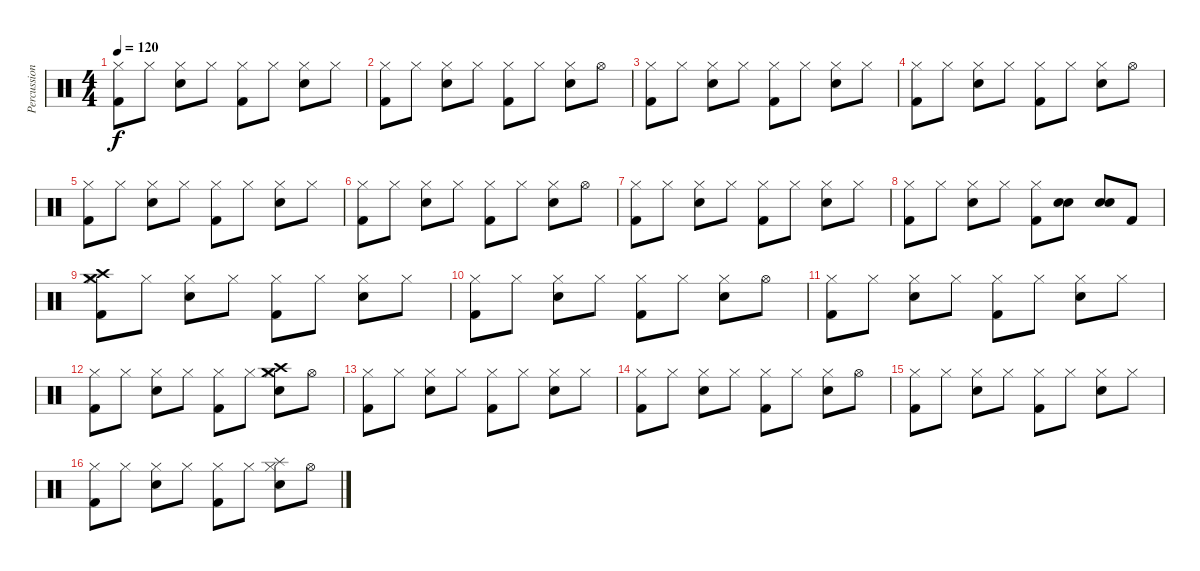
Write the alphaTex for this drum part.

\track ("Percussion" "Percussion") {instrument percussion}
\staff {score}
\articulation defaults
\ts (4 4)
\tempo 120
\clef neutral
\ks c
("Kick (hit) 2" "Hi-Hat (closed)").8{dy f} "Hi-Hat (closed)".8 ("Electric Snare (hit)" "Hi-Hat (closed)").8 "Hi-Hat (closed)".8 ("Kick (hit) 2" "Hi-Hat (closed)").8 "Hi-Hat (closed)".8 ("Electric Snare (hit)" "Hi-Hat (closed)").8 "Hi-Hat (closed)".8 |
("Kick (hit) 2" "Hi-Hat (closed)").8 "Hi-Hat (closed)".8 ("Electric Snare (hit)" "Hi-Hat (closed)").8 "Hi-Hat (closed)".8 ("Kick (hit) 2" "Hi-Hat (closed)").8 "Hi-Hat (closed)".8 ("Electric Snare (hit)" "Hi-Hat (closed)").8 "Hi-Hat (open)".8 |
("Kick (hit) 2" "Hi-Hat (closed)").8 "Hi-Hat (closed)".8 ("Electric Snare (hit)" "Hi-Hat (closed)").8 "Hi-Hat (closed)".8 ("Kick (hit) 2" "Hi-Hat (closed)").8 "Hi-Hat (closed)".8 ("Electric Snare (hit)" "Hi-Hat (closed)").8 "Hi-Hat (closed)".8 |
("Kick (hit) 2" "Hi-Hat (closed)").8 "Hi-Hat (closed)".8 ("Electric Snare (hit)" "Hi-Hat (closed)").8 "Hi-Hat (closed)".8 ("Kick (hit) 2" "Hi-Hat (closed)").8 "Hi-Hat (closed)".8 ("Electric Snare (hit)" "Hi-Hat (closed)").8 "Hi-Hat (open)".8 |
("Kick (hit) 2" "Hi-Hat (closed)").8 "Hi-Hat (closed)".8 ("Electric Snare (hit)" "Hi-Hat (closed)").8 "Hi-Hat (closed)".8 ("Kick (hit) 2" "Hi-Hat (closed)").8 "Hi-Hat (closed)".8 ("Electric Snare (hit)" "Hi-Hat (closed)").8 "Hi-Hat (closed)".8 |
("Kick (hit) 2" "Hi-Hat (closed)").8 "Hi-Hat (closed)".8 ("Electric Snare (hit)" "Hi-Hat (closed)").8 "Hi-Hat (closed)".8 ("Kick (hit) 2" "Hi-Hat (closed)").8 "Hi-Hat (closed)".8 ("Electric Snare (hit)" "Hi-Hat (closed)").8 "Hi-Hat (open)".8 |
("Kick (hit) 2" "Hi-Hat (closed)").8 "Hi-Hat (closed)".8 ("Electric Snare (hit)" "Hi-Hat (closed)").8 "Hi-Hat (closed)".8 ("Kick (hit) 2" "Hi-Hat (closed)").8 "Hi-Hat (closed)".8 ("Electric Snare (hit)" "Hi-Hat (closed)").8 "Hi-Hat (closed)".8 |
("Kick (hit) 2" "Hi-Hat (closed)").8 "Hi-Hat (closed)".8 ("Electric Snare (hit)" "Hi-Hat (closed)").8 "Hi-Hat (closed)".8 ("Kick (hit) 2" "Hi-Hat (closed)").8 ("Electric Snare (hit)" "Electric Snare (hit)").8 ("Electric Snare (hit)" "Electric Snare (hit)").8 "Kick (hit) 2".8 |
("Crash high (hit)" "Crash medium (hit)" "Kick (hit) 2" "Hi-Hat (closed)").8 "Hi-Hat (closed)".8 ("Electric Snare (hit)" "Hi-Hat (closed)").8 "Hi-Hat (closed)".8 ("Kick (hit) 2" "Hi-Hat (closed)").8 "Hi-Hat (closed)".8 ("Electric Snare (hit)" "Hi-Hat (closed)").8 "Hi-Hat (closed)".8 |
("Kick (hit) 2" "Hi-Hat (closed)").8 "Hi-Hat (closed)".8 ("Electric Snare (hit)" "Hi-Hat (closed)").8 "Hi-Hat (closed)".8 ("Kick (hit) 2" "Hi-Hat (closed)").8 "Hi-Hat (closed)".8 ("Electric Snare (hit)" "Hi-Hat (closed)").8 "Hi-Hat (open)".8 |
("Kick (hit) 2" "Hi-Hat (closed)").8 "Hi-Hat (closed)".8 ("Electric Snare (hit)" "Hi-Hat (closed)").8 "Hi-Hat (closed)".8 ("Kick (hit) 2" "Hi-Hat (closed)").8 "Hi-Hat (closed)".8 ("Electric Snare (hit)" "Hi-Hat (closed)").8 "Hi-Hat (closed)".8 |
("Kick (hit) 2" "Hi-Hat (closed)").8 "Hi-Hat (closed)".8 ("Electric Snare (hit)" "Hi-Hat (closed)").8 "Hi-Hat (closed)".8 ("Kick (hit) 2" "Hi-Hat (closed)").8 "Hi-Hat (closed)".8 ("Crash medium (hit)" "Crash high (hit)" "Electric Snare (hit)" "Hi-Hat (closed)").8 "Hi-Hat (open)".8 |
("Kick (hit) 2" "Hi-Hat (closed)").8 "Hi-Hat (closed)".8 ("Electric Snare (hit)" "Hi-Hat (closed)").8 "Hi-Hat (closed)".8 ("Kick (hit) 2" "Hi-Hat (closed)").8 "Hi-Hat (closed)".8 ("Electric Snare (hit)" "Hi-Hat (closed)").8 "Hi-Hat (closed)".8 |
("Kick (hit) 2" "Hi-Hat (closed)").8 "Hi-Hat (closed)".8 ("Electric Snare (hit)" "Hi-Hat (closed)").8 "Hi-Hat (closed)".8 ("Kick (hit) 2" "Hi-Hat (closed)").8 "Hi-Hat (closed)".8 ("Electric Snare (hit)" "Hi-Hat (closed)").8 "Hi-Hat (open)".8 |
("Kick (hit) 2" "Hi-Hat (closed)").8 "Hi-Hat (closed)".8 ("Electric Snare (hit)" "Hi-Hat (closed)").8 "Hi-Hat (closed)".8 ("Kick (hit) 2" "Hi-Hat (closed)").8 "Hi-Hat (closed)".8 ("Electric Snare (hit)" "Hi-Hat (closed)").8 "Hi-Hat (closed)".8 |
("Kick (hit) 2" "Hi-Hat (closed)").8 "Hi-Hat (closed)".8 ("Electric Snare (hit)" "Hi-Hat (closed)").8 "Hi-Hat (closed)".8 ("Kick (hit) 2" "Hi-Hat (closed)").8 "Hi-Hat (closed)".8 ("Splash (hit)" "Electric Snare (hit)" "Hi-Hat (closed)").8 "Hi-Hat (open)".8
